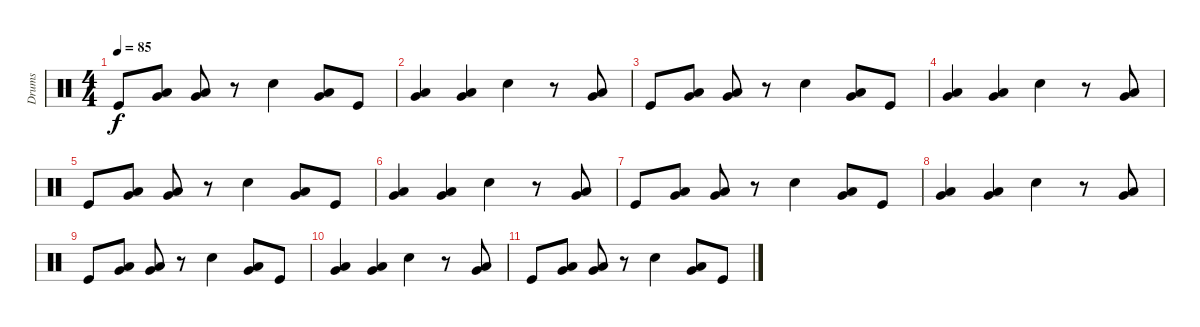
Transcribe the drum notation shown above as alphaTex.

\track ("Drums" "Drums") {instrument percussion}
\staff {score}
\articulation defaults
\ts (4 4)
\tempo 85
\clef neutral
\ks c "Kick (hit)".8{dy f}
("Very Low Tom (hit)" "Low Floor Tom (hit)").8 ("Very Low Tom (hit)" "Low Floor Tom (hit)").8 r.8 "Electric Snare (hit)".4 ("Very Low Tom (hit)" "Low Floor Tom (hit)").8 "Kick (hit)".8 |
("Very Low Tom (hit)" "Low Floor Tom (hit)").4{volume 6} ("Very Low Tom (hit)" "Low Floor Tom (hit)").4 "Electric Snare (hit)".4 r.8 ("Very Low Tom (hit)" "Low Floor Tom (hit)").8 |
"Kick (hit)".8 ("Very Low Tom (hit)" "Low Floor Tom (hit)").8 ("Very Low Tom (hit)" "Low Floor Tom (hit)").8 r.8 "Electric Snare (hit)".4 ("Very Low Tom (hit)" "Low Floor Tom (hit)").8 "Kick (hit)".8 |
("Very Low Tom (hit)" "Low Floor Tom (hit)").4 ("Very Low Tom (hit)" "Low Floor Tom (hit)").4 "Electric Snare (hit)".4 r.8 ("Very Low Tom (hit)" "Low Floor Tom (hit)").8 |
"Kick (hit)".8 ("Very Low Tom (hit)" "Low Floor Tom (hit)").8 ("Very Low Tom (hit)" "Low Floor Tom (hit)").8 r.8 "Electric Snare (hit)".4 ("Very Low Tom (hit)" "Low Floor Tom (hit)").8 "Kick (hit)".8 |
("Very Low Tom (hit)" "Low Floor Tom (hit)").4 ("Very Low Tom (hit)" "Low Floor Tom (hit)").4 "Electric Snare (hit)".4 r.8 ("Very Low Tom (hit)" "Low Floor Tom (hit)").8 |
"Kick (hit)".8 ("Very Low Tom (hit)" "Low Floor Tom (hit)").8 ("Very Low Tom (hit)" "Low Floor Tom (hit)").8 r.8{volume 0} "Electric Snare (hit)".4 ("Very Low Tom (hit)" "Low Floor Tom (hit)").8 "Kick (hit)".8 |
("Very Low Tom (hit)" "Low Floor Tom (hit)").4 ("Very Low Tom (hit)" "Low Floor Tom (hit)").4 "Electric Snare (hit)".4 r.8 ("Very Low Tom (hit)" "Low Floor Tom (hit)").8 |
"Kick (hit)".8 ("Very Low Tom (hit)" "Low Floor Tom (hit)").8 ("Very Low Tom (hit)" "Low Floor Tom (hit)").8 r.8 "Electric Snare (hit)".4 ("Very Low Tom (hit)" "Low Floor Tom (hit)").8 "Kick (hit)".8 |
("Very Low Tom (hit)" "Low Floor Tom (hit)").4 ("Very Low Tom (hit)" "Low Floor Tom (hit)").4 "Electric Snare (hit)".4 r.8 ("Very Low Tom (hit)" "Low Floor Tom (hit)").8 |
"Kick (hit)".8 ("Very Low Tom (hit)" "Low Floor Tom (hit)").8 ("Very Low Tom (hit)" "Low Floor Tom (hit)").8 r.8 "Electric Snare (hit)".4 ("Very Low Tom (hit)" "Low Floor Tom (hit)").8 "Kick (hit)".8
